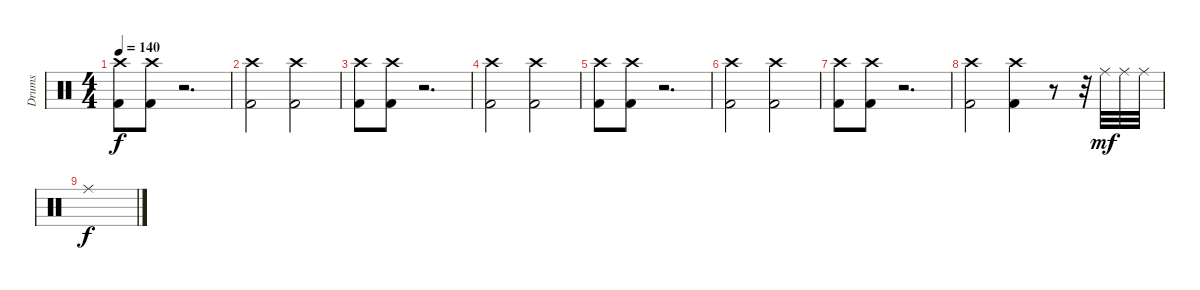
\track ("Drums" "Drums") {instrument percussion}
\staff {score}
\articulation defaults
\ts (4 4)
\tempo 140
\clef neutral
\ks c
("Crash high (hit)" "Kick (hit) 2").8{dy f} ("Crash high (hit)" "Kick (hit) 2").8 r.2{d} |
("Crash high (hit)" "Kick (hit) 2").2 ("Crash high (hit)" "Kick (hit) 2").2 |
("Crash high (hit)" "Kick (hit) 2").8 ("Crash high (hit)" "Kick (hit) 2").8 r.2{d} |
("Crash high (hit)" "Kick (hit) 2").2 ("Crash high (hit)" "Kick (hit) 2").2 |
("Crash high (hit)" "Kick (hit) 2").8 ("Crash high (hit)" "Kick (hit) 2").8 r.2{d} |
("Crash high (hit)" "Kick (hit) 2").2 ("Crash high (hit)" "Kick (hit) 2").2 |
("Crash high (hit)" "Kick (hit) 2").8 ("Crash high (hit)" "Kick (hit) 2").8 r.2{d} |
("Crash high (hit)" "Kick (hit) 2").2 ("Crash high (hit)" "Kick (hit) 2").4 r.8 r.32 "Ride (middle)".32{dy mf} "Ride (middle)".32 "Ride (middle)".32 |
"Ride (middle)".1{dy f}
